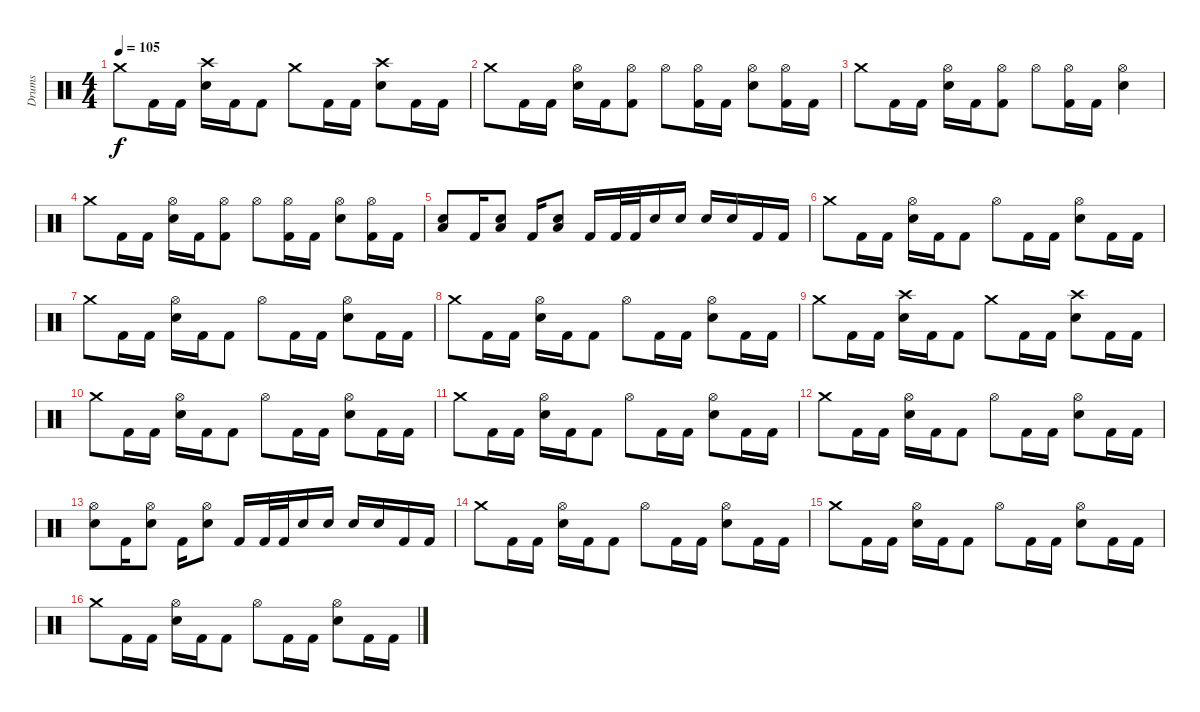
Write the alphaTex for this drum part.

\track ("Drums" "Drums") {instrument percussion}
\staff {score}
\articulation defaults
\ts (4 4)
\tempo 105
\clef neutral
\ks c "Crash medium (hit)".8{dy f} "Kick (hit) 2".16 "Kick (hit) 2".16
("Crash high (hit)" "Electric Snare (hit)").16 "Kick (hit) 2".16 "Kick (hit) 2".8 "Crash medium (hit)".8 "Kick (hit) 2".16 "Kick (hit) 2".16 ("Crash high (hit)" "Electric Snare (hit)").8 "Kick (hit) 2".16 "Kick (hit) 2".16 |
"Crash medium (hit)".8 "Kick (hit) 2".16 "Kick (hit) 2".16 ("Hi-Hat (open)" "Electric Snare (hit)").16 "Kick (hit) 2".16 ("Hi-Hat (open)" "Kick (hit) 2").8 "Hi-Hat (open)".8 ("Hi-Hat (open)" "Kick (hit) 2").16 "Kick (hit) 2".16 ("Hi-Hat (open)" "Electric Snare (hit)").8 ("Hi-Hat (open)" "Kick (hit) 2").16 "Kick (hit) 2".16 |
"Crash medium (hit)".8 "Kick (hit) 2".16 "Kick (hit) 2".16 ("Hi-Hat (open)" "Electric Snare (hit)").16 "Kick (hit) 2".16 ("Hi-Hat (open)" "Kick (hit) 2").8 "Hi-Hat (open)".8 ("Hi-Hat (open)" "Kick (hit) 2").16 "Kick (hit) 2".16 ("Hi-Hat (open)" "Electric Snare (hit)").4 |
"Crash medium (hit)".8 "Kick (hit) 2".16 "Kick (hit) 2".16 ("Hi-Hat (open)" "Electric Snare (hit)").16 "Kick (hit) 2".16 ("Hi-Hat (open)" "Kick (hit) 2").8 "Hi-Hat (open)".8 ("Hi-Hat (open)" "Kick (hit) 2").16 "Kick (hit) 2".16 ("Hi-Hat (open)" "Electric Snare (hit)").8 ("Hi-Hat (open)" "Kick (hit) 2").16 "Kick (hit) 2".16 |
("Low Tom (hit)" "Electric Snare (hit)").8 "Kick (hit) 2".16 ("Low Tom (hit)" "Electric Snare (hit)").8 "Kick (hit) 2".16 ("Low Tom (hit)" "Electric Snare (hit)").8 "Kick (hit) 2".16 "Kick (hit) 2".32 "Kick (hit) 2".32 "Electric Snare (hit)".16 "Electric Snare (hit)".16 "Electric Snare (hit)".16 "Electric Snare (hit)".16 "Kick (hit) 2".16 "Kick (hit) 2".16 |
"Crash medium (hit)".8 "Kick (hit) 2".16 "Kick (hit) 2".16 ("Hi-Hat (open)" "Electric Snare (hit)").16 "Kick (hit) 2".16 "Kick (hit) 2".8 "Hi-Hat (open)".8 "Kick (hit) 2".16 "Kick (hit) 2".16 ("Hi-Hat (open)" "Electric Snare (hit)").8 "Kick (hit) 2".16 "Kick (hit) 2".16 |
"Crash medium (hit)".8 "Kick (hit) 2".16 "Kick (hit) 2".16 ("Hi-Hat (open)" "Electric Snare (hit)").16 "Kick (hit) 2".16 "Kick (hit) 2".8 "Hi-Hat (open)".8 "Kick (hit) 2".16 "Kick (hit) 2".16 ("Hi-Hat (open)" "Electric Snare (hit)").8 "Kick (hit) 2".16 "Kick (hit) 2".16 |
"Crash medium (hit)".8 "Kick (hit) 2".16 "Kick (hit) 2".16 ("Hi-Hat (open)" "Electric Snare (hit)").16 "Kick (hit) 2".16 "Kick (hit) 2".8 "Hi-Hat (open)".8 "Kick (hit) 2".16 "Kick (hit) 2".16 ("Hi-Hat (open)" "Electric Snare (hit)").8 "Kick (hit) 2".16 "Kick (hit) 2".16 |
"Crash medium (hit)".8 "Kick (hit) 2".16 "Kick (hit) 2".16 ("Crash high (hit)" "Electric Snare (hit)").16 "Kick (hit) 2".16 "Kick (hit) 2".8 "Crash medium (hit)".8 "Kick (hit) 2".16 "Kick (hit) 2".16 ("Crash high (hit)" "Electric Snare (hit)").8 "Kick (hit) 2".16 "Kick (hit) 2".16 |
"Crash medium (hit)".8 "Kick (hit) 2".16 "Kick (hit) 2".16 ("Hi-Hat (open)" "Electric Snare (hit)").16 "Kick (hit) 2".16 "Kick (hit) 2".8 "Hi-Hat (open)".8 "Kick (hit) 2".16 "Kick (hit) 2".16 ("Hi-Hat (open)" "Electric Snare (hit)").8 "Kick (hit) 2".16 "Kick (hit) 2".16 |
"Crash medium (hit)".8 "Kick (hit) 2".16 "Kick (hit) 2".16 ("Hi-Hat (open)" "Electric Snare (hit)").16 "Kick (hit) 2".16 "Kick (hit) 2".8 "Hi-Hat (open)".8 "Kick (hit) 2".16 "Kick (hit) 2".16 ("Hi-Hat (open)" "Electric Snare (hit)").8 "Kick (hit) 2".16 "Kick (hit) 2".16 |
"Crash medium (hit)".8 "Kick (hit) 2".16 "Kick (hit) 2".16 ("Hi-Hat (open)" "Electric Snare (hit)").16 "Kick (hit) 2".16 "Kick (hit) 2".8 "Hi-Hat (open)".8 "Kick (hit) 2".16 "Kick (hit) 2".16 ("Hi-Hat (open)" "Electric Snare (hit)").8 "Kick (hit) 2".16 "Kick (hit) 2".16 |
("Hi-Hat (open)" "Electric Snare (hit)").8 "Kick (hit) 2".16 ("Hi-Hat (open)" "Electric Snare (hit)").8 "Kick (hit) 2".16 ("Hi-Hat (open)" "Electric Snare (hit)").8 "Kick (hit) 2".16 "Kick (hit) 2".32 "Kick (hit) 2".32 "Electric Snare (hit)".16 "Electric Snare (hit)".16 "Electric Snare (hit)".16 "Electric Snare (hit)".16 "Kick (hit) 2".16 "Kick (hit) 2".16 |
"Crash medium (hit)".8 "Kick (hit) 2".16 "Kick (hit) 2".16 ("Hi-Hat (open)" "Electric Snare (hit)").16 "Kick (hit) 2".16 "Kick (hit) 2".8 "Hi-Hat (open)".8 "Kick (hit) 2".16 "Kick (hit) 2".16 ("Hi-Hat (open)" "Electric Snare (hit)").8 "Kick (hit) 2".16 "Kick (hit) 2".16 |
"Crash medium (hit)".8 "Kick (hit) 2".16 "Kick (hit) 2".16 ("Hi-Hat (open)" "Electric Snare (hit)").16 "Kick (hit) 2".16 "Kick (hit) 2".8 "Hi-Hat (open)".8 "Kick (hit) 2".16 "Kick (hit) 2".16 ("Hi-Hat (open)" "Electric Snare (hit)").8 "Kick (hit) 2".16 "Kick (hit) 2".16 |
"Crash medium (hit)".8 "Kick (hit) 2".16 "Kick (hit) 2".16 ("Hi-Hat (open)" "Electric Snare (hit)").16 "Kick (hit) 2".16 "Kick (hit) 2".8 "Hi-Hat (open)".8 "Kick (hit) 2".16 "Kick (hit) 2".16 ("Hi-Hat (open)" "Electric Snare (hit)").8 "Kick (hit) 2".16 "Kick (hit) 2".16
